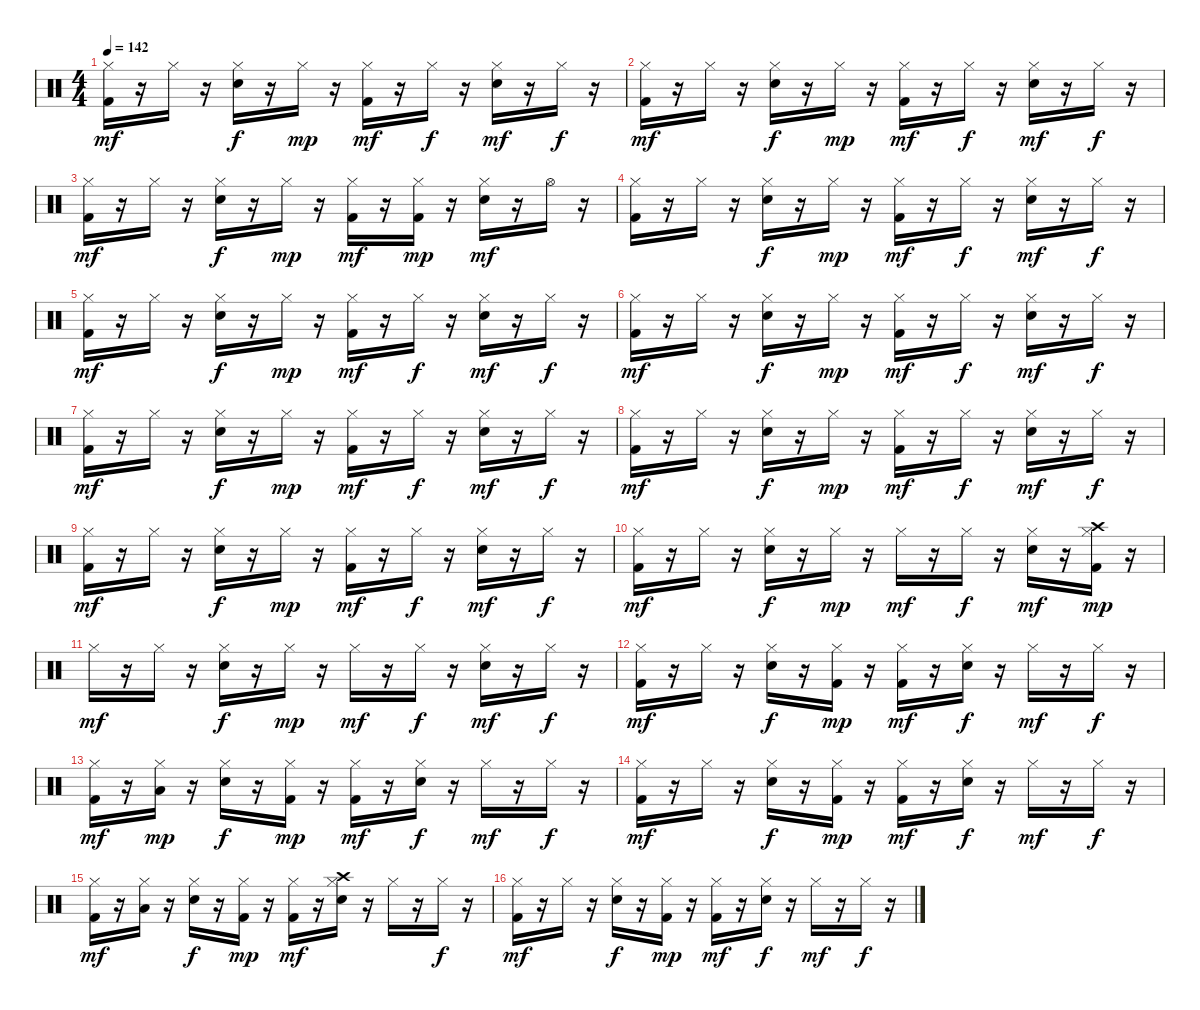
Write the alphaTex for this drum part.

\track "" {instrument percussion}
\staff {score}
\articulation defaults
\ts (4 4)
\tempo 142
\clef neutral
\ks c
("Hi-Hat (closed)" "Kick (hit) 2").16{dy mf} r.16 "Hi-Hat (closed)".16 r.16 ("Electric Snare (hit)" "Hi-Hat (closed)").16{dy f} r.16 "Hi-Hat (closed)".16{dy mp} r.16 ("Kick (hit) 2" "Hi-Hat (closed)").16{dy mf} r.16 "Hi-Hat (closed)".16{dy f} r.16 ("Electric Snare (hit)" "Hi-Hat (closed)").16{dy mf} r.16 "Hi-Hat (closed)".16{dy f} r.16 |
("Hi-Hat (closed)" "Kick (hit) 2").16{dy mf} r.16 "Hi-Hat (closed)".16 r.16 ("Hi-Hat (closed)" "Electric Snare (hit)").16{dy f} r.16 "Hi-Hat (closed)".16{dy mp} r.16 ("Kick (hit) 2" "Hi-Hat (closed)").16{dy mf} r.16 "Hi-Hat (closed)".16{dy f} r.16 ("Hi-Hat (closed)" "Electric Snare (hit)").16{dy mf} r.16 "Hi-Hat (closed)".16{dy f} r.16 |
("Kick (hit) 2" "Hi-Hat (closed)").16{dy mf} r.16 "Hi-Hat (closed)".16 r.16 ("Electric Snare (hit)" "Hi-Hat (closed)").16{dy f} r.16 "Hi-Hat (closed)".16{dy mp} r.16 ("Kick (hit) 2" "Hi-Hat (closed)").16{dy mf} r.16 ("Kick (hit) 2" "Hi-Hat (closed)").16{dy mp} r.16 ("Hi-Hat (closed)" "Electric Snare (hit)").16{dy mf} r.16 "Hi-Hat (open)".16 r.16 |
("Hi-Hat (closed)" "Kick (hit) 2").16 r.16 "Hi-Hat (closed)".16 r.16 ("Electric Snare (hit)" "Hi-Hat (closed)").16{dy f} r.16 "Hi-Hat (closed)".16{dy mp} r.16 ("Hi-Hat (closed)" "Kick (hit) 2").16{dy mf} r.16 "Hi-Hat (closed)".16{dy f} r.16 ("Electric Snare (hit)" "Hi-Hat (closed)").16{dy mf} r.16 "Hi-Hat (closed)".16{dy f} r.16 |
("Hi-Hat (closed)" "Kick (hit) 2").16{dy mf} r.16 "Hi-Hat (closed)".16 r.16 ("Electric Snare (hit)" "Hi-Hat (closed)").16{dy f} r.16 "Hi-Hat (closed)".16{dy mp} r.16 ("Kick (hit) 2" "Hi-Hat (closed)").16{dy mf} r.16 "Hi-Hat (closed)".16{dy f} r.16 ("Hi-Hat (closed)" "Electric Snare (hit)").16{dy mf} r.16 "Hi-Hat (closed)".16{dy f} r.16 |
("Kick (hit) 2" "Hi-Hat (closed)").16{dy mf} r.16 "Hi-Hat (closed)".16 r.16 ("Hi-Hat (closed)" "Electric Snare (hit)").16{dy f} r.16 "Hi-Hat (closed)".16{dy mp} r.16 ("Hi-Hat (closed)" "Kick (hit) 2").16{dy mf} r.16 "Hi-Hat (closed)".16{dy f} r.16 ("Electric Snare (hit)" "Hi-Hat (closed)").16{dy mf} r.16 "Hi-Hat (closed)".16{dy f} r.16 |
("Hi-Hat (closed)" "Kick (hit) 2").16{dy mf} r.16 "Hi-Hat (closed)".16 r.16 ("Hi-Hat (closed)" "Electric Snare (hit)").16{dy f} r.16 "Hi-Hat (closed)".16{dy mp} r.16 ("Hi-Hat (closed)" "Kick (hit) 2").16{dy mf} r.16 "Hi-Hat (closed)".16{dy f} r.16 ("Electric Snare (hit)" "Hi-Hat (closed)").16{dy mf} r.16 "Hi-Hat (closed)".16{dy f} r.16 |
("Hi-Hat (closed)" "Kick (hit) 2").16{dy mf} r.16 "Hi-Hat (closed)".16 r.16 ("Electric Snare (hit)" "Hi-Hat (closed)").16{dy f} r.16 "Hi-Hat (closed)".16{dy mp} r.16 ("Hi-Hat (closed)" "Kick (hit) 2").16{dy mf} r.16 "Hi-Hat (closed)".16{dy f} r.16 ("Hi-Hat (closed)" "Electric Snare (hit)").16{dy mf} r.16 "Hi-Hat (closed)".16{dy f} r.16 |
("Kick (hit) 2" "Hi-Hat (closed)").16{dy mf} r.16 "Hi-Hat (closed)".16 r.16 ("Hi-Hat (closed)" "Electric Snare (hit)").16{dy f} r.16 "Hi-Hat (closed)".16{dy mp} r.16 ("Hi-Hat (closed)" "Kick (hit) 2").16{dy mf} r.16 "Hi-Hat (closed)".16{dy f} r.16 ("Electric Snare (hit)" "Hi-Hat (closed)").16{dy mf} r.16 "Hi-Hat (closed)".16{dy f} r.16 |
("Hi-Hat (closed)" "Kick (hit) 2").16{dy mf} r.16 "Hi-Hat (closed)".16 r.16 ("Hi-Hat (closed)" "Electric Snare (hit)").16{dy f} r.16 "Hi-Hat (closed)".16{dy mp} r.16 "Hi-Hat (closed)".16{dy mf} r.16 "Hi-Hat (closed)".16{dy f} r.16 ("Hi-Hat (closed)" "Electric Snare (hit)").16{dy mf} r.16 ("Hi-Hat (closed)" "Kick (hit) 2" "Crash high (hit)").16{dy mp} r.16 |
"Hi-Hat (closed)".16{dy mf} r.16 "Hi-Hat (closed)".16 r.16 ("Electric Snare (hit)" "Hi-Hat (closed)").16{dy f} r.16 "Hi-Hat (closed)".16{dy mp} r.16 "Hi-Hat (closed)".16{dy mf} r.16 "Hi-Hat (closed)".16{dy f} r.16 ("Hi-Hat (closed)" "Electric Snare (hit)").16{dy mf} r.16 "Hi-Hat (closed)".16{dy f} r.16 |
("Kick (hit) 2" "Hi-Hat (closed)").16{dy mf} r.16 "Hi-Hat (closed)".16 r.16 ("Hi-Hat (closed)" "Electric Snare (hit)").16{dy f} r.16 ("Hi-Hat (closed)" "Kick (hit) 2").16{dy mp} r.16 ("Kick (hit) 2" "Hi-Hat (closed)").16{dy mf} r.16 ("Electric Snare (hit)" "Hi-Hat (closed)").16{dy f} r.16 "Hi-Hat (closed)".16{dy mf} r.16 "Hi-Hat (closed)".16{dy f} r.16 |
("Hi-Hat (closed)" "Kick (hit) 2").16{dy mf} r.16 ("Hi-Hat (closed)" "Low Tom (hit)").16{dy mp} r.16 ("Electric Snare (hit)" "Hi-Hat (closed)").16{dy f} r.16 ("Kick (hit) 2" "Hi-Hat (closed)").16{dy mp} r.16 ("Kick (hit) 2" "Hi-Hat (closed)").16{dy mf} r.16 ("Electric Snare (hit)" "Hi-Hat (closed)").16{dy f} r.16 "Hi-Hat (closed)".16{dy mf} r.16 "Hi-Hat (closed)".16{dy f} r.16 |
("Hi-Hat (closed)" "Kick (hit) 2").16{dy mf} r.16 "Hi-Hat (closed)".16 r.16 ("Electric Snare (hit)" "Hi-Hat (closed)").16{dy f} r.16 ("Hi-Hat (closed)" "Kick (hit) 2").16{dy mp} r.16 ("Kick (hit) 2" "Hi-Hat (closed)").16{dy mf} r.16 ("Hi-Hat (closed)" "Electric Snare (hit)").16{dy f} r.16 "Hi-Hat (closed)".16{dy mf} r.16 "Hi-Hat (closed)".16{dy f} r.16 |
("Hi-Hat (closed)" "Kick (hit) 2").16{dy mf} r.16 ("Low Tom (hit)" "Hi-Hat (closed)").16 r.16 ("Electric Snare (hit)" "Hi-Hat (closed)").16{dy f} r.16 ("Hi-Hat (closed)" "Kick (hit) 2").16{dy mp} r.16 ("Hi-Hat (closed)" "Kick (hit) 2").16{dy mf} r.16 ("Electric Snare (hit)" "Hi-Hat (closed)" "Crash high (hit)").16 r.16 "Hi-Hat (closed)".16 r.16 "Hi-Hat (closed)".16{dy f} r.16 |
("Kick (hit) 2" "Hi-Hat (closed)").16{dy mf} r.16 "Hi-Hat (closed)".16 r.16 ("Electric Snare (hit)" "Hi-Hat (closed)").16{dy f} r.16 ("Hi-Hat (closed)" "Kick (hit) 2").16{dy mp} r.16 ("Kick (hit) 2" "Hi-Hat (closed)").16{dy mf} r.16 ("Hi-Hat (closed)" "Electric Snare (hit)").16{dy f} r.16 "Hi-Hat (closed)".16{dy mf} r.16 "Hi-Hat (closed)".16{dy f} r.16
